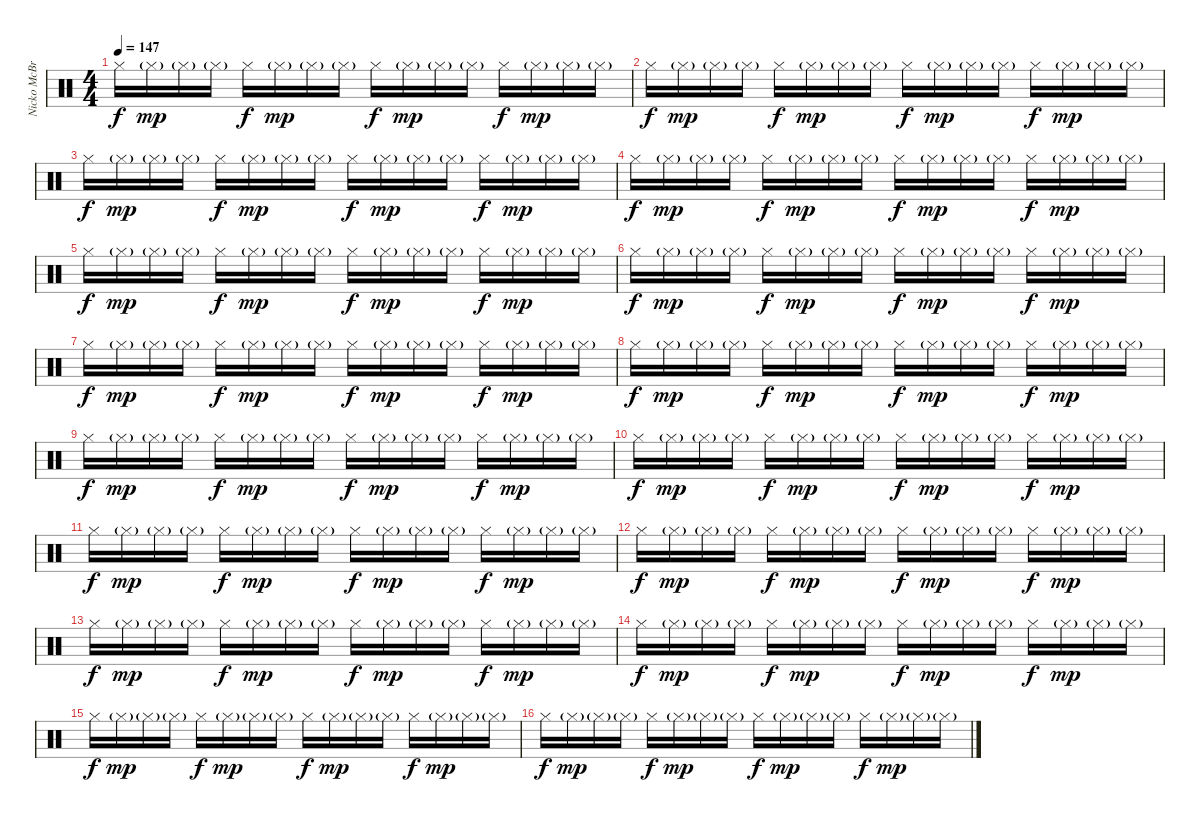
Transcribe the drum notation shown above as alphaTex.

\track ("Nicko McBrain" "Nicko McBr") {instrument percussion}
\staff {score}
\articulation defaults
\ts (4 4)
\tempo 147
\clef neutral
\ks c "Hi-Hat (closed)".16{dy f} "Hi-Hat (closed)"{g}.16{dy mp} "Hi-Hat (closed)"{g}.16 "Hi-Hat (closed)"{g}.16 "Hi-Hat (closed)".16{dy f} "Hi-Hat (closed)"{g}.16{dy mp} "Hi-Hat (closed)"{g}.16 "Hi-Hat (closed)"{g}.16 "Hi-Hat (closed)".16{dy f} "Hi-Hat (closed)"{g}.16{dy mp} "Hi-Hat (closed)"{g}.16 "Hi-Hat (closed)"{g}.16 "Hi-Hat (closed)".16{dy f} "Hi-Hat (closed)"{g}.16{dy mp} "Hi-Hat (closed)"{g}.16 "Hi-Hat (closed)"{g}.16
|
"Hi-Hat (closed)".16{dy f} "Hi-Hat (closed)"{g}.16{dy mp} "Hi-Hat (closed)"{g}.16 "Hi-Hat (closed)"{g}.16 "Hi-Hat (closed)".16{dy f} "Hi-Hat (closed)"{g}.16{dy mp} "Hi-Hat (closed)"{g}.16 "Hi-Hat (closed)"{g}.16 "Hi-Hat (closed)".16{dy f} "Hi-Hat (closed)"{g}.16{dy mp} "Hi-Hat (closed)"{g}.16 "Hi-Hat (closed)"{g}.16 "Hi-Hat (closed)".16{dy f} "Hi-Hat (closed)"{g}.16{dy mp} "Hi-Hat (closed)"{g}.16 "Hi-Hat (closed)"{g}.16 |
"Hi-Hat (closed)".16{dy f} "Hi-Hat (closed)"{g}.16{dy mp} "Hi-Hat (closed)"{g}.16 "Hi-Hat (closed)"{g}.16 "Hi-Hat (closed)".16{dy f} "Hi-Hat (closed)"{g}.16{dy mp} "Hi-Hat (closed)"{g}.16 "Hi-Hat (closed)"{g}.16 "Hi-Hat (closed)".16{dy f} "Hi-Hat (closed)"{g}.16{dy mp} "Hi-Hat (closed)"{g}.16 "Hi-Hat (closed)"{g}.16 "Hi-Hat (closed)".16{dy f} "Hi-Hat (closed)"{g}.16{dy mp} "Hi-Hat (closed)"{g}.16 "Hi-Hat (closed)"{g}.16 |
"Hi-Hat (closed)".16{dy f} "Hi-Hat (closed)"{g}.16{dy mp} "Hi-Hat (closed)"{g}.16 "Hi-Hat (closed)"{g}.16 "Hi-Hat (closed)".16{dy f} "Hi-Hat (closed)"{g}.16{dy mp} "Hi-Hat (closed)"{g}.16 "Hi-Hat (closed)"{g}.16 "Hi-Hat (closed)".16{dy f} "Hi-Hat (closed)"{g}.16{dy mp} "Hi-Hat (closed)"{g}.16 "Hi-Hat (closed)"{g}.16 "Hi-Hat (closed)".16{dy f} "Hi-Hat (closed)"{g}.16{dy mp} "Hi-Hat (closed)"{g}.16 "Hi-Hat (closed)"{g}.16 |
"Hi-Hat (closed)".16{dy f} "Hi-Hat (closed)"{g}.16{dy mp} "Hi-Hat (closed)"{g}.16 "Hi-Hat (closed)"{g}.16 "Hi-Hat (closed)".16{dy f} "Hi-Hat (closed)"{g}.16{dy mp} "Hi-Hat (closed)"{g}.16 "Hi-Hat (closed)"{g}.16 "Hi-Hat (closed)".16{dy f} "Hi-Hat (closed)"{g}.16{dy mp} "Hi-Hat (closed)"{g}.16 "Hi-Hat (closed)"{g}.16 "Hi-Hat (closed)".16{dy f} "Hi-Hat (closed)"{g}.16{dy mp} "Hi-Hat (closed)"{g}.16 "Hi-Hat (closed)"{g}.16 |
"Hi-Hat (closed)".16{dy f} "Hi-Hat (closed)"{g}.16{dy mp} "Hi-Hat (closed)"{g}.16 "Hi-Hat (closed)"{g}.16 "Hi-Hat (closed)".16{dy f} "Hi-Hat (closed)"{g}.16{dy mp} "Hi-Hat (closed)"{g}.16 "Hi-Hat (closed)"{g}.16 "Hi-Hat (closed)".16{dy f} "Hi-Hat (closed)"{g}.16{dy mp} "Hi-Hat (closed)"{g}.16 "Hi-Hat (closed)"{g}.16 "Hi-Hat (closed)".16{dy f} "Hi-Hat (closed)"{g}.16{dy mp} "Hi-Hat (closed)"{g}.16 "Hi-Hat (closed)"{g}.16 |
"Hi-Hat (closed)".16{dy f} "Hi-Hat (closed)"{g}.16{dy mp} "Hi-Hat (closed)"{g}.16 "Hi-Hat (closed)"{g}.16 "Hi-Hat (closed)".16{dy f} "Hi-Hat (closed)"{g}.16{dy mp} "Hi-Hat (closed)"{g}.16 "Hi-Hat (closed)"{g}.16 "Hi-Hat (closed)".16{dy f} "Hi-Hat (closed)"{g}.16{dy mp} "Hi-Hat (closed)"{g}.16 "Hi-Hat (closed)"{g}.16 "Hi-Hat (closed)".16{dy f} "Hi-Hat (closed)"{g}.16{dy mp} "Hi-Hat (closed)"{g}.16 "Hi-Hat (closed)"{g}.16 |
"Hi-Hat (closed)".16{dy f} "Hi-Hat (closed)"{g}.16{dy mp} "Hi-Hat (closed)"{g}.16 "Hi-Hat (closed)"{g}.16 "Hi-Hat (closed)".16{dy f} "Hi-Hat (closed)"{g}.16{dy mp} "Hi-Hat (closed)"{g}.16 "Hi-Hat (closed)"{g}.16 "Hi-Hat (closed)".16{dy f} "Hi-Hat (closed)"{g}.16{dy mp} "Hi-Hat (closed)"{g}.16 "Hi-Hat (closed)"{g}.16 "Hi-Hat (closed)".16{dy f} "Hi-Hat (closed)"{g}.16{dy mp} "Hi-Hat (closed)"{g}.16 "Hi-Hat (closed)"{g}.16 |
"Hi-Hat (closed)".16{dy f} "Hi-Hat (closed)"{g}.16{dy mp} "Hi-Hat (closed)"{g}.16 "Hi-Hat (closed)"{g}.16 "Hi-Hat (closed)".16{dy f} "Hi-Hat (closed)"{g}.16{dy mp} "Hi-Hat (closed)"{g}.16 "Hi-Hat (closed)"{g}.16 "Hi-Hat (closed)".16{dy f} "Hi-Hat (closed)"{g}.16{dy mp} "Hi-Hat (closed)"{g}.16 "Hi-Hat (closed)"{g}.16 "Hi-Hat (closed)".16{dy f} "Hi-Hat (closed)"{g}.16{dy mp} "Hi-Hat (closed)"{g}.16 "Hi-Hat (closed)"{g}.16 |
"Hi-Hat (closed)".16{dy f} "Hi-Hat (closed)"{g}.16{dy mp} "Hi-Hat (closed)"{g}.16 "Hi-Hat (closed)"{g}.16 "Hi-Hat (closed)".16{dy f} "Hi-Hat (closed)"{g}.16{dy mp} "Hi-Hat (closed)"{g}.16 "Hi-Hat (closed)"{g}.16 "Hi-Hat (closed)".16{dy f} "Hi-Hat (closed)"{g}.16{dy mp} "Hi-Hat (closed)"{g}.16 "Hi-Hat (closed)"{g}.16 "Hi-Hat (closed)".16{dy f} "Hi-Hat (closed)"{g}.16{dy mp} "Hi-Hat (closed)"{g}.16 "Hi-Hat (closed)"{g}.16 |
"Hi-Hat (closed)".16{dy f} "Hi-Hat (closed)"{g}.16{dy mp} "Hi-Hat (closed)"{g}.16 "Hi-Hat (closed)"{g}.16 "Hi-Hat (closed)".16{dy f} "Hi-Hat (closed)"{g}.16{dy mp} "Hi-Hat (closed)"{g}.16 "Hi-Hat (closed)"{g}.16 "Hi-Hat (closed)".16{dy f} "Hi-Hat (closed)"{g}.16{dy mp} "Hi-Hat (closed)"{g}.16 "Hi-Hat (closed)"{g}.16 "Hi-Hat (closed)".16{dy f} "Hi-Hat (closed)"{g}.16{dy mp} "Hi-Hat (closed)"{g}.16 "Hi-Hat (closed)"{g}.16 |
"Hi-Hat (closed)".16{dy f} "Hi-Hat (closed)"{g}.16{dy mp} "Hi-Hat (closed)"{g}.16 "Hi-Hat (closed)"{g}.16 "Hi-Hat (closed)".16{dy f} "Hi-Hat (closed)"{g}.16{dy mp} "Hi-Hat (closed)"{g}.16 "Hi-Hat (closed)"{g}.16 "Hi-Hat (closed)".16{dy f} "Hi-Hat (closed)"{g}.16{dy mp} "Hi-Hat (closed)"{g}.16 "Hi-Hat (closed)"{g}.16 "Hi-Hat (closed)".16{dy f} "Hi-Hat (closed)"{g}.16{dy mp} "Hi-Hat (closed)"{g}.16 "Hi-Hat (closed)"{g}.16 |
"Hi-Hat (closed)".16{dy f} "Hi-Hat (closed)"{g}.16{dy mp} "Hi-Hat (closed)"{g}.16 "Hi-Hat (closed)"{g}.16 "Hi-Hat (closed)".16{dy f} "Hi-Hat (closed)"{g}.16{dy mp} "Hi-Hat (closed)"{g}.16 "Hi-Hat (closed)"{g}.16 "Hi-Hat (closed)".16{dy f} "Hi-Hat (closed)"{g}.16{dy mp} "Hi-Hat (closed)"{g}.16 "Hi-Hat (closed)"{g}.16 "Hi-Hat (closed)".16{dy f} "Hi-Hat (closed)"{g}.16{dy mp} "Hi-Hat (closed)"{g}.16 "Hi-Hat (closed)"{g}.16 |
"Hi-Hat (closed)".16{dy f} "Hi-Hat (closed)"{g}.16{dy mp} "Hi-Hat (closed)"{g}.16 "Hi-Hat (closed)"{g}.16 "Hi-Hat (closed)".16{dy f} "Hi-Hat (closed)"{g}.16{dy mp} "Hi-Hat (closed)"{g}.16 "Hi-Hat (closed)"{g}.16 "Hi-Hat (closed)".16{dy f} "Hi-Hat (closed)"{g}.16{dy mp} "Hi-Hat (closed)"{g}.16 "Hi-Hat (closed)"{g}.16 "Hi-Hat (closed)".16{dy f} "Hi-Hat (closed)"{g}.16{dy mp} "Hi-Hat (closed)"{g}.16 "Hi-Hat (closed)"{g}.16 |
"Hi-Hat (closed)".16{dy f} "Hi-Hat (closed)"{g}.16{dy mp} "Hi-Hat (closed)"{g}.16 "Hi-Hat (closed)"{g}.16 "Hi-Hat (closed)".16{dy f} "Hi-Hat (closed)"{g}.16{dy mp} "Hi-Hat (closed)"{g}.16 "Hi-Hat (closed)"{g}.16 "Hi-Hat (closed)".16{dy f} "Hi-Hat (closed)"{g}.16{dy mp} "Hi-Hat (closed)"{g}.16 "Hi-Hat (closed)"{g}.16 "Hi-Hat (closed)".16{dy f} "Hi-Hat (closed)"{g}.16{dy mp} "Hi-Hat (closed)"{g}.16 "Hi-Hat (closed)"{g}.16 |
"Hi-Hat (closed)".16{dy f} "Hi-Hat (closed)"{g}.16{dy mp} "Hi-Hat (closed)"{g}.16 "Hi-Hat (closed)"{g}.16 "Hi-Hat (closed)".16{dy f} "Hi-Hat (closed)"{g}.16{dy mp} "Hi-Hat (closed)"{g}.16 "Hi-Hat (closed)"{g}.16 "Hi-Hat (closed)".16{dy f} "Hi-Hat (closed)"{g}.16{dy mp} "Hi-Hat (closed)"{g}.16 "Hi-Hat (closed)"{g}.16 "Hi-Hat (closed)".16{dy f} "Hi-Hat (closed)"{g}.16{dy mp} "Hi-Hat (closed)"{g}.16 "Hi-Hat (closed)"{g}.16
